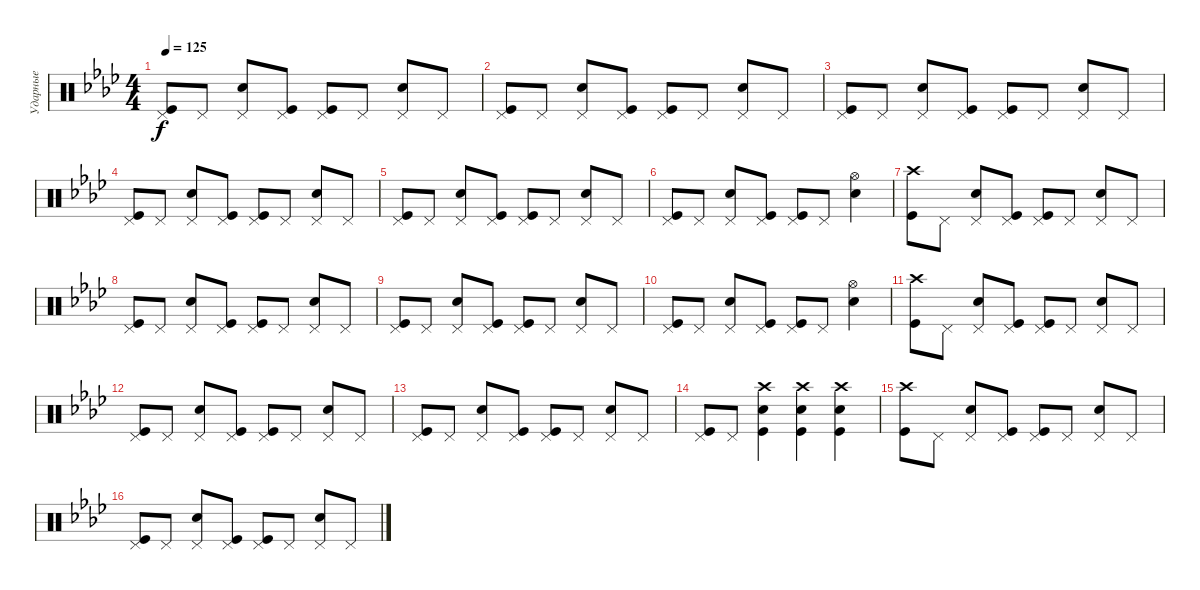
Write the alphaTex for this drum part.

\track ("Ударные" "Ударные") {solo instrument percussion}
\staff {score}
\articulation defaults
\ts (4 4)
\tempo 125
\clef neutral
\ks fminor
("Pedal Hi-Hat (hit)" "Kick (hit)").8{dy f} "Pedal Hi-Hat (hit)".8 ("Pedal Hi-Hat (hit)" "Electric Snare (hit)").8 ("Pedal Hi-Hat (hit)" "Kick (hit)").8 ("Pedal Hi-Hat (hit)" "Kick (hit)").8 "Pedal Hi-Hat (hit)".8 ("Pedal Hi-Hat (hit)" "Electric Snare (hit)").8 "Pedal Hi-Hat (hit)".8 |
("Pedal Hi-Hat (hit)" "Kick (hit)").8 "Pedal Hi-Hat (hit)".8 ("Pedal Hi-Hat (hit)" "Electric Snare (hit)").8 ("Pedal Hi-Hat (hit)" "Kick (hit)").8 ("Pedal Hi-Hat (hit)" "Kick (hit)").8 "Pedal Hi-Hat (hit)".8 ("Pedal Hi-Hat (hit)" "Electric Snare (hit)").8 "Pedal Hi-Hat (hit)".8 |
("Pedal Hi-Hat (hit)" "Kick (hit)").8 "Pedal Hi-Hat (hit)".8 ("Pedal Hi-Hat (hit)" "Electric Snare (hit)").8 ("Pedal Hi-Hat (hit)" "Kick (hit)").8 ("Pedal Hi-Hat (hit)" "Kick (hit)").8 "Pedal Hi-Hat (hit)".8 ("Pedal Hi-Hat (hit)" "Electric Snare (hit)").8 "Pedal Hi-Hat (hit)".8 |
("Pedal Hi-Hat (hit)" "Kick (hit)").8 "Pedal Hi-Hat (hit)".8 ("Pedal Hi-Hat (hit)" "Electric Snare (hit)").8 ("Pedal Hi-Hat (hit)" "Kick (hit)").8 ("Pedal Hi-Hat (hit)" "Kick (hit)").8 "Pedal Hi-Hat (hit)".8 ("Pedal Hi-Hat (hit)" "Electric Snare (hit)").8 "Pedal Hi-Hat (hit)".8 |
("Pedal Hi-Hat (hit)" "Kick (hit)").8 "Pedal Hi-Hat (hit)".8 ("Pedal Hi-Hat (hit)" "Electric Snare (hit)").8 ("Pedal Hi-Hat (hit)" "Kick (hit)").8 ("Pedal Hi-Hat (hit)" "Kick (hit)").8 "Pedal Hi-Hat (hit)".8 ("Pedal Hi-Hat (hit)" "Electric Snare (hit)").8 "Pedal Hi-Hat (hit)".8 |
("Pedal Hi-Hat (hit)" "Kick (hit)").8 "Pedal Hi-Hat (hit)".8 ("Pedal Hi-Hat (hit)" "Electric Snare (hit)").8 ("Pedal Hi-Hat (hit)" "Kick (hit)").8 ("Pedal Hi-Hat (hit)" "Kick (hit)").8 "Pedal Hi-Hat (hit)".8 ("Hi-Hat (open)" "Electric Snare (hit)").4 |
("Crash high (hit)" "Kick (hit)").8 "Pedal Hi-Hat (hit)".8 ("Pedal Hi-Hat (hit)" "Electric Snare (hit)").8 ("Pedal Hi-Hat (hit)" "Kick (hit)").8 ("Pedal Hi-Hat (hit)" "Kick (hit)").8 "Pedal Hi-Hat (hit)".8 ("Pedal Hi-Hat (hit)" "Electric Snare (hit)").8 "Pedal Hi-Hat (hit)".8 |
("Pedal Hi-Hat (hit)" "Kick (hit)").8 "Pedal Hi-Hat (hit)".8 ("Pedal Hi-Hat (hit)" "Electric Snare (hit)").8 ("Pedal Hi-Hat (hit)" "Kick (hit)").8 ("Pedal Hi-Hat (hit)" "Kick (hit)").8 "Pedal Hi-Hat (hit)".8 ("Pedal Hi-Hat (hit)" "Electric Snare (hit)").8 "Pedal Hi-Hat (hit)".8 |
("Pedal Hi-Hat (hit)" "Kick (hit)").8 "Pedal Hi-Hat (hit)".8 ("Pedal Hi-Hat (hit)" "Electric Snare (hit)").8 ("Pedal Hi-Hat (hit)" "Kick (hit)").8 ("Pedal Hi-Hat (hit)" "Kick (hit)").8 "Pedal Hi-Hat (hit)".8 ("Pedal Hi-Hat (hit)" "Electric Snare (hit)").8 "Pedal Hi-Hat (hit)".8 |
("Pedal Hi-Hat (hit)" "Kick (hit)").8 "Pedal Hi-Hat (hit)".8 ("Pedal Hi-Hat (hit)" "Electric Snare (hit)").8 ("Pedal Hi-Hat (hit)" "Kick (hit)").8 ("Pedal Hi-Hat (hit)" "Kick (hit)").8 "Pedal Hi-Hat (hit)".8 ("Hi-Hat (open)" "Electric Snare (hit)").4 |
("Crash high (hit)" "Kick (hit)").8 "Pedal Hi-Hat (hit)".8 ("Pedal Hi-Hat (hit)" "Electric Snare (hit)").8 ("Pedal Hi-Hat (hit)" "Kick (hit)").8 ("Pedal Hi-Hat (hit)" "Kick (hit)").8 "Pedal Hi-Hat (hit)".8 ("Pedal Hi-Hat (hit)" "Electric Snare (hit)").8 "Pedal Hi-Hat (hit)".8 |
("Pedal Hi-Hat (hit)" "Kick (hit)").8 "Pedal Hi-Hat (hit)".8 ("Pedal Hi-Hat (hit)" "Electric Snare (hit)").8 ("Pedal Hi-Hat (hit)" "Kick (hit)").8 ("Pedal Hi-Hat (hit)" "Kick (hit)").8 "Pedal Hi-Hat (hit)".8 ("Pedal Hi-Hat (hit)" "Electric Snare (hit)").8 "Pedal Hi-Hat (hit)".8 |
("Pedal Hi-Hat (hit)" "Kick (hit)").8 "Pedal Hi-Hat (hit)".8 ("Pedal Hi-Hat (hit)" "Electric Snare (hit)").8 ("Pedal Hi-Hat (hit)" "Kick (hit)").8 ("Pedal Hi-Hat (hit)" "Kick (hit)").8 "Pedal Hi-Hat (hit)".8 ("Pedal Hi-Hat (hit)" "Electric Snare (hit)").8 "Pedal Hi-Hat (hit)".8 |
("Pedal Hi-Hat (hit)" "Kick (hit)").8 "Pedal Hi-Hat (hit)".8 ("Electric Snare (hit)" "Crash high (hit)" "Kick (hit)").4 ("Electric Snare (hit)" "Crash high (hit)" "Kick (hit)").4 ("Electric Snare (hit)" "Crash high (hit)" "Kick (hit)").4 |
("Crash high (hit)" "Kick (hit)").8 "Pedal Hi-Hat (hit)".8 ("Pedal Hi-Hat (hit)" "Electric Snare (hit)").8 ("Pedal Hi-Hat (hit)" "Kick (hit)").8 ("Pedal Hi-Hat (hit)" "Kick (hit)").8 "Pedal Hi-Hat (hit)".8 ("Pedal Hi-Hat (hit)" "Electric Snare (hit)").8 "Pedal Hi-Hat (hit)".8 |
("Pedal Hi-Hat (hit)" "Kick (hit)").8 "Pedal Hi-Hat (hit)".8 ("Pedal Hi-Hat (hit)" "Electric Snare (hit)").8 ("Pedal Hi-Hat (hit)" "Kick (hit)").8 ("Pedal Hi-Hat (hit)" "Kick (hit)").8 "Pedal Hi-Hat (hit)".8 ("Pedal Hi-Hat (hit)" "Electric Snare (hit)").8 "Pedal Hi-Hat (hit)".8
